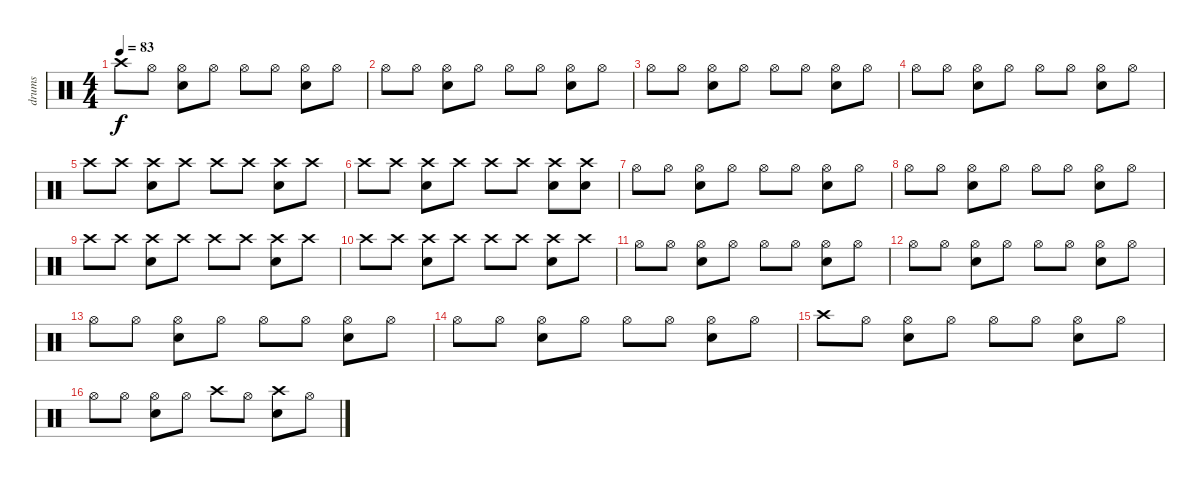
\track ("drums" "drums") {instrument percussion}
\staff {score}
\articulation defaults
\ts (4 4)
\tempo 83
\clef neutral
\ks c "Crash high (hit)".8{dy f} "Hi-Hat (open)".8
("Snare (hit) 2" "Hi-Hat (open)").8 "Hi-Hat (open)".8 "Hi-Hat (open)".8 "Hi-Hat (open)".8 ("Snare (hit) 2" "Hi-Hat (open)").8 "Hi-Hat (open)".8 |
"Hi-Hat (open)".8 "Hi-Hat (open)".8 ("Snare (hit) 2" "Hi-Hat (open)").8 "Hi-Hat (open)".8 "Hi-Hat (open)".8 "Hi-Hat (open)".8 ("Snare (hit) 2" "Hi-Hat (open)").8 "Hi-Hat (open)".8 |
"Hi-Hat (open)".8 "Hi-Hat (open)".8 ("Snare (hit) 2" "Hi-Hat (open)").8 "Hi-Hat (open)".8 "Hi-Hat (open)".8 "Hi-Hat (open)".8 ("Snare (hit) 2" "Hi-Hat (open)").8 "Hi-Hat (open)".8 |
"Hi-Hat (open)".8 "Hi-Hat (open)".8 ("Snare (hit) 2" "Hi-Hat (open)").8 "Hi-Hat (open)".8 "Hi-Hat (open)".8 "Hi-Hat (open)".8 ("Snare (hit) 2" "Hi-Hat (open)").8 "Hi-Hat (open)".8 |
"Crash high (hit)".8 "Crash high (hit)".8 ("Crash high (hit)" "Snare (hit) 2").8 "Crash high (hit)".8 "Crash high (hit)".8 "Crash high (hit)".8 ("Crash high (hit)" "Snare (hit) 2").8 "Crash high (hit)".8 |
"Crash high (hit)".8 "Crash high (hit)".8 ("Crash high (hit)" "Snare (hit) 2").8 "Crash high (hit)".8 "Crash high (hit)".8 "Crash high (hit)".8 ("Crash high (hit)" "Snare (hit) 2").8 ("Crash high (hit)" "Snare (hit) 2").8 |
"Hi-Hat (open)".8 "Hi-Hat (open)".8 ("Snare (hit) 2" "Hi-Hat (open)").8 "Hi-Hat (open)".8 "Hi-Hat (open)".8 "Hi-Hat (open)".8 ("Snare (hit) 2" "Hi-Hat (open)").8 "Hi-Hat (open)".8 |
"Hi-Hat (open)".8 "Hi-Hat (open)".8 ("Snare (hit) 2" "Hi-Hat (open)").8 "Hi-Hat (open)".8 "Hi-Hat (open)".8 "Hi-Hat (open)".8 ("Snare (hit) 2" "Hi-Hat (open)").8 "Hi-Hat (open)".8 |
"Crash high (hit)".8 "Crash high (hit)".8 ("Crash high (hit)" "Snare (hit) 2").8 "Crash high (hit)".8 "Crash high (hit)".8 "Crash high (hit)".8 ("Crash high (hit)" "Snare (hit) 2").8 "Crash high (hit)".8 |
"Crash high (hit)".8 "Crash high (hit)".8 ("Crash high (hit)" "Snare (hit) 2").8 "Crash high (hit)".8 "Crash high (hit)".8 "Crash high (hit)".8 ("Crash high (hit)" "Snare (hit) 2").8 "Crash high (hit)".8 |
"Hi-Hat (open)".8 "Hi-Hat (open)".8 ("Snare (hit) 2" "Hi-Hat (open)").8 "Hi-Hat (open)".8 "Hi-Hat (open)".8 "Hi-Hat (open)".8 ("Snare (hit) 2" "Hi-Hat (open)").8 "Hi-Hat (open)".8 |
"Hi-Hat (open)".8 "Hi-Hat (open)".8 ("Snare (hit) 2" "Hi-Hat (open)").8 "Hi-Hat (open)".8 "Hi-Hat (open)".8 "Hi-Hat (open)".8 ("Snare (hit) 2" "Hi-Hat (open)").8 "Hi-Hat (open)".8 |
"Hi-Hat (open)".8 "Hi-Hat (open)".8 ("Snare (hit) 2" "Hi-Hat (open)").8 "Hi-Hat (open)".8 "Hi-Hat (open)".8 "Hi-Hat (open)".8 ("Snare (hit) 2" "Hi-Hat (open)").8 "Hi-Hat (open)".8 |
"Hi-Hat (open)".8 "Hi-Hat (open)".8 ("Snare (hit) 2" "Hi-Hat (open)").8 "Hi-Hat (open)".8 "Hi-Hat (open)".8 "Hi-Hat (open)".8 ("Snare (hit) 2" "Hi-Hat (open)").8 "Hi-Hat (open)".8 |
"Crash high (hit)".8 "Hi-Hat (open)".8 ("Snare (hit) 2" "Hi-Hat (open)").8 "Hi-Hat (open)".8 "Hi-Hat (open)".8 "Hi-Hat (open)".8 ("Snare (hit) 2" "Hi-Hat (open)").8 "Hi-Hat (open)".8 |
"Hi-Hat (open)".8 "Hi-Hat (open)".8 ("Snare (hit) 2" "Hi-Hat (open)").8 "Hi-Hat (open)".8 "Crash high (hit)".8 "Hi-Hat (open)".8 ("Crash high (hit)" "Snare (hit) 2").8 "Hi-Hat (open)".8
